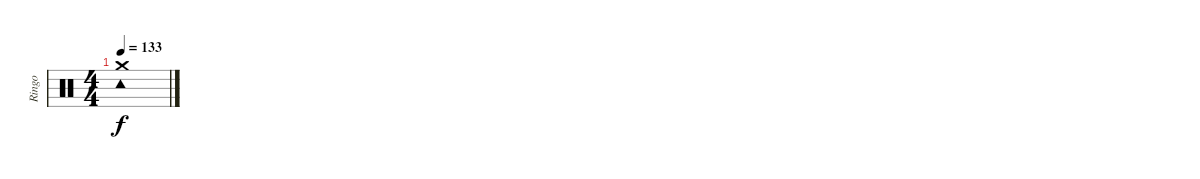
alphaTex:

\track ("Ringo" "Ringo") {instrument percussion}
\staff {score}
\articulation defaults
\ts (4 4)
\tempo 133
\clef neutral
\ks c
("Tambourine (hit)" "Crash medium (hit)").1{dy f}
